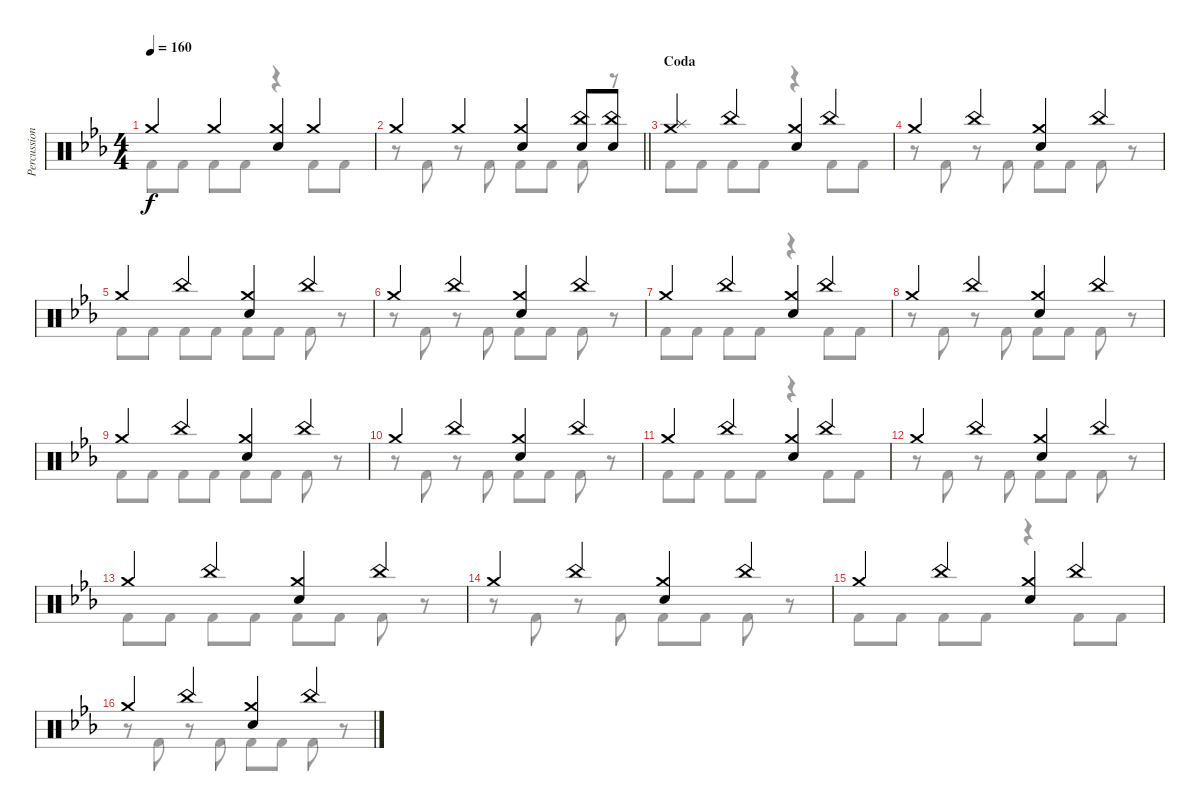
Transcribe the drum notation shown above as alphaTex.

\track ("Percussion" "Percussion") {instrument percussion}
\staff {score}
\articulation defaults
\voice
\ts (4 4)
\tempo 160
\clef neutral
\ks cminor "Crash medium (hit)".4{dy f} "Crash medium (hit)".4
("Crash medium (hit)" "Electric Snare (hit)").4 "Crash medium (hit)".4 |
\barLineRight lightlight "Crash medium (hit)".4 "Crash medium (hit)".4
("Crash medium (hit)" "Electric Snare (hit)").4 ("China (hit)" "Electric Snare (hit)").8 ("China (hit)" "Electric Snare (hit)").8 |
\section ("" "Coda")
("Crash medium (hit)" "Splash (hit)").4 "China (hit)".4 ("Crash medium (hit)" "Electric Snare (hit)").4 "China (hit)".4 |
"Crash medium (hit)".4 "China (hit)".4 ("Crash medium (hit)" "Electric Snare (hit)").4 "China (hit)".4 |
"Crash medium (hit)".4 "China (hit)".4 ("Crash medium (hit)" "Electric Snare (hit)").4 "China (hit)".4 |
"Crash medium (hit)".4 "China (hit)".4 ("Crash medium (hit)" "Electric Snare (hit)").4 "China (hit)".4 |
"Crash medium (hit)".4 "China (hit)".4 ("Crash medium (hit)" "Electric Snare (hit)").4 "China (hit)".4 |
"Crash medium (hit)".4 "China (hit)".4 ("Crash medium (hit)" "Electric Snare (hit)").4 "China (hit)".4 |
"Crash medium (hit)".4 "China (hit)".4 ("Crash medium (hit)" "Electric Snare (hit)").4 "China (hit)".4 |
"Crash medium (hit)".4 "China (hit)".4 ("Crash medium (hit)" "Electric Snare (hit)").4 "China (hit)".4 |
"Crash medium (hit)".4 "China (hit)".4 ("Crash medium (hit)" "Electric Snare (hit)").4 "China (hit)".4 |
"Crash medium (hit)".4 "China (hit)".4 ("Crash medium (hit)" "Electric Snare (hit)").4 "China (hit)".4 |
"Crash medium (hit)".4 "China (hit)".4 ("Crash medium (hit)" "Electric Snare (hit)").4 "China (hit)".4 |
"Crash medium (hit)".4 "China (hit)".4 ("Crash medium (hit)" "Electric Snare (hit)").4 "China (hit)".4 |
"Crash medium (hit)".4 "China (hit)".4 ("Crash medium (hit)" "Electric Snare (hit)").4 "China (hit)".4 |
"Crash medium (hit)".4 "China (hit)".4 ("Crash medium (hit)" "Electric Snare (hit)").4 "China (hit)".4
\voice
\clef neutral
\ottava regular
\simile none
\ks cminor "Kick (hit) 2".8{dy f} "Kick (hit) 2".8 "Kick (hit) 2".8 "Kick (hit) 2".8
r.4 "Kick (hit) 2".8 "Kick (hit) 2".8 |
\barLineRight lightlight
r.8 "Kick (hit) 2".8 r.8 "Kick (hit) 2".8 "Kick (hit) 2".8 "Kick (hit) 2".8 "Kick (hit) 2".8 r.8 |
"Kick (hit) 2".8 "Kick (hit) 2".8 "Kick (hit) 2".8 "Kick (hit) 2".8 r.4 "Kick (hit) 2".8 "Kick (hit) 2".8 |
r.8 "Kick (hit) 2".8 r.8 "Kick (hit) 2".8 "Kick (hit) 2".8 "Kick (hit) 2".8 "Kick (hit) 2".8 r.8 |
"Kick (hit) 2".8 "Kick (hit) 2".8 "Kick (hit) 2".8 "Kick (hit) 2".8 "Kick (hit) 2".8 "Kick (hit) 2".8 "Kick (hit) 2".8 r.8 |
r.8 "Kick (hit) 2".8 r.8 "Kick (hit) 2".8 "Kick (hit) 2".8 "Kick (hit) 2".8 "Kick (hit) 2".8 r.8 |
"Kick (hit) 2".8 "Kick (hit) 2".8 "Kick (hit) 2".8 "Kick (hit) 2".8 r.4 "Kick (hit) 2".8 "Kick (hit) 2".8 |
r.8 "Kick (hit) 2".8 r.8 "Kick (hit) 2".8 "Kick (hit) 2".8 "Kick (hit) 2".8 "Kick (hit) 2".8 r.8 |
"Kick (hit) 2".8 "Kick (hit) 2".8 "Kick (hit) 2".8 "Kick (hit) 2".8 "Kick (hit) 2".8 "Kick (hit) 2".8 "Kick (hit) 2".8 r.8 |
r.8 "Kick (hit) 2".8 r.8 "Kick (hit) 2".8 "Kick (hit) 2".8 "Kick (hit) 2".8 "Kick (hit) 2".8 r.8 |
"Kick (hit) 2".8 "Kick (hit) 2".8 "Kick (hit) 2".8 "Kick (hit) 2".8 r.4 "Kick (hit) 2".8 "Kick (hit) 2".8 |
r.8 "Kick (hit) 2".8 r.8 "Kick (hit) 2".8 "Kick (hit) 2".8 "Kick (hit) 2".8 "Kick (hit) 2".8 r.8 |
"Kick (hit) 2".8 "Kick (hit) 2".8 "Kick (hit) 2".8 "Kick (hit) 2".8 "Kick (hit) 2".8 "Kick (hit) 2".8 "Kick (hit) 2".8 r.8 |
r.8 "Kick (hit) 2".8 r.8 "Kick (hit) 2".8 "Kick (hit) 2".8 "Kick (hit) 2".8 "Kick (hit) 2".8 r.8 |
"Kick (hit) 2".8 "Kick (hit) 2".8 "Kick (hit) 2".8 "Kick (hit) 2".8 r.4 "Kick (hit) 2".8 "Kick (hit) 2".8 |
r.8 "Kick (hit) 2".8 r.8 "Kick (hit) 2".8 "Kick (hit) 2".8 "Kick (hit) 2".8 "Kick (hit) 2".8 r.8
